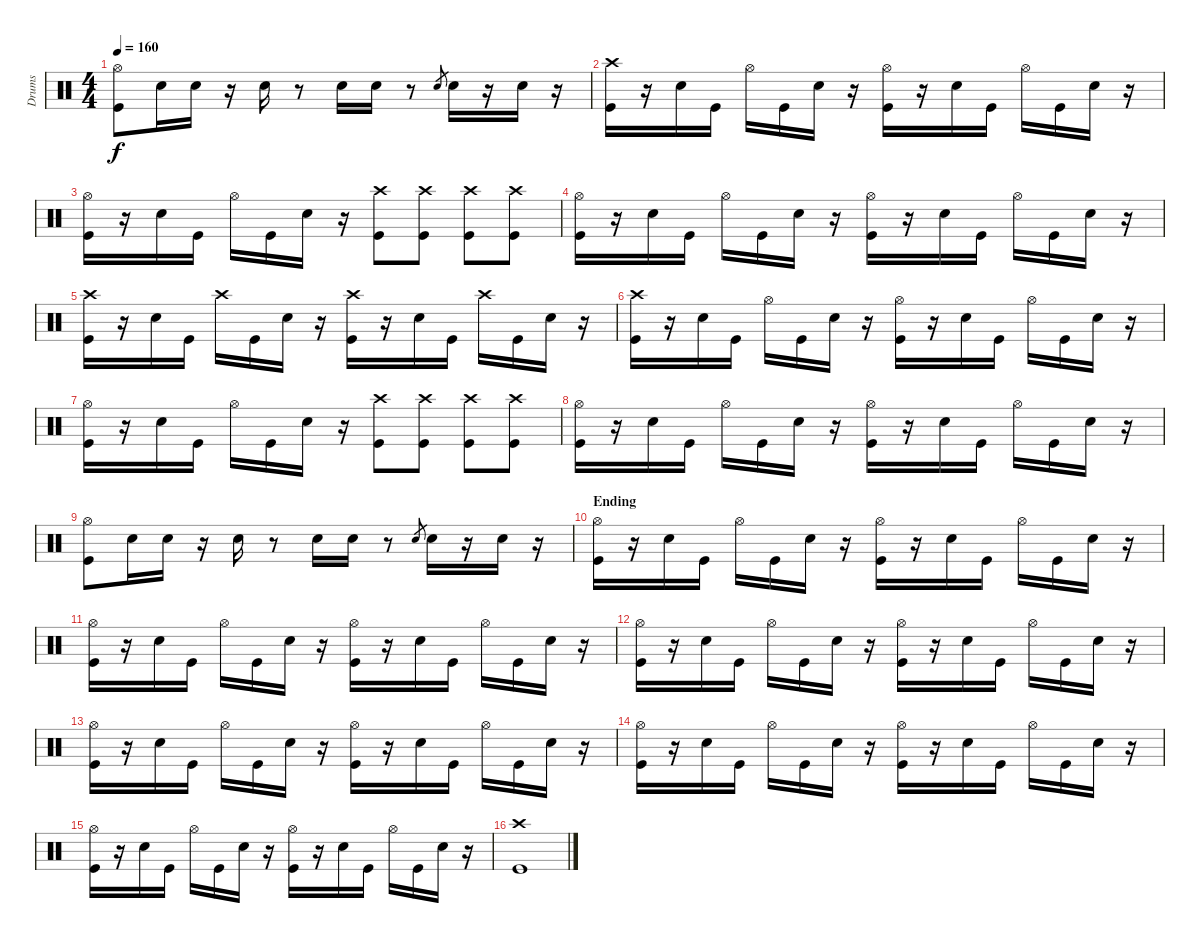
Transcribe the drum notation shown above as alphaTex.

\track ("Drums" "Drums") {instrument percussion}
\staff {score}
\articulation defaults
\ts (4 4)
\tempo 160
\clef neutral
\ks c
("Kick (hit)" "Hi-Hat (open)").8{dy f} "Snare (hit) 2".16 "Snare (hit) 2".16 r.16 "Snare (hit) 2".16 r.8 "Snare (hit) 2".16 "Snare (hit) 2".16 r.8 "Snare (hit) 2".8{gr} "Snare (hit) 2".16 r.16 "Snare (hit) 2".16 r.16 |
("Kick (hit)" "Crash high (hit)").16 r.16 "Snare (hit) 2".16 "Kick (hit)".16 "Hi-Hat (open)".16 "Kick (hit)".16 "Snare (hit) 2".16 r.16 ("Kick (hit)" "Hi-Hat (open)").16 r.16 "Snare (hit) 2".16 "Kick (hit)".16 "Hi-Hat (open)".16 "Kick (hit)".16 "Snare (hit) 2".16 r.16 |
("Kick (hit)" "Hi-Hat (open)").16 r.16 "Snare (hit) 2".16 "Kick (hit)".16 "Hi-Hat (open)".16 "Kick (hit)".16 "Snare (hit) 2".16 r.16 ("Kick (hit)" "Crash high (hit)").8 ("Kick (hit)" "Crash high (hit)").8 ("Kick (hit)" "Crash high (hit)").8 ("Kick (hit)" "Crash high (hit)").8 |
("Kick (hit)" "Hi-Hat (open)").16 r.16 "Snare (hit) 2".16 "Kick (hit)".16 "Hi-Hat (open)".16 "Kick (hit)".16 "Snare (hit) 2".16 r.16 ("Kick (hit)" "Hi-Hat (open)").16 r.16 "Snare (hit) 2".16 "Kick (hit)".16 "Hi-Hat (open)".16 "Kick (hit)".16 "Snare (hit) 2".16 r.16 |
("Kick (hit)" "Crash high (hit)").16 r.16 "Snare (hit) 2".16 "Kick (hit)".16 "Crash high (hit)".16 "Kick (hit)".16 "Snare (hit) 2".16 r.16 ("Kick (hit)" "Crash high (hit)").16 r.16 "Snare (hit) 2".16 "Kick (hit)".16 "Crash high (hit)".16 "Kick (hit)".16 "Snare (hit) 2".16 r.16 |
("Kick (hit)" "Crash high (hit)").16 r.16 "Snare (hit) 2".16 "Kick (hit)".16 "Hi-Hat (open)".16 "Kick (hit)".16 "Snare (hit) 2".16 r.16 ("Kick (hit)" "Hi-Hat (open)").16 r.16 "Snare (hit) 2".16 "Kick (hit)".16 "Hi-Hat (open)".16 "Kick (hit)".16 "Snare (hit) 2".16 r.16 |
("Kick (hit)" "Hi-Hat (open)").16 r.16 "Snare (hit) 2".16 "Kick (hit)".16 "Hi-Hat (open)".16 "Kick (hit)".16 "Snare (hit) 2".16 r.16 ("Kick (hit)" "Crash high (hit)").8 ("Kick (hit)" "Crash high (hit)").8 ("Kick (hit)" "Crash high (hit)").8 ("Kick (hit)" "Crash high (hit)").8 |
("Kick (hit)" "Hi-Hat (open)").16 r.16 "Snare (hit) 2".16 "Kick (hit)".16 "Hi-Hat (open)".16 "Kick (hit)".16 "Snare (hit) 2".16 r.16 ("Kick (hit)" "Hi-Hat (open)").16 r.16 "Snare (hit) 2".16 "Kick (hit)".16 "Hi-Hat (open)".16 "Kick (hit)".16 "Snare (hit) 2".16 r.16 |
("Kick (hit)" "Hi-Hat (open)").8 "Snare (hit) 2".16 "Snare (hit) 2".16 r.16 "Snare (hit) 2".16 r.8 "Snare (hit) 2".16 "Snare (hit) 2".16 r.8 "Snare (hit) 2".8{gr} "Snare (hit) 2".16 r.16 "Snare (hit) 2".16 r.16 |
\section ("" "Ending")
("Kick (hit)" "Hi-Hat (open)").16 r.16 "Snare (hit) 2".16 "Kick (hit)".16 "Hi-Hat (open)".16 "Kick (hit)".16 "Snare (hit) 2".16 r.16 ("Kick (hit)" "Hi-Hat (open)").16 r.16 "Snare (hit) 2".16 "Kick (hit)".16 "Hi-Hat (open)".16 "Kick (hit)".16 "Snare (hit) 2".16 r.16 |
("Kick (hit)" "Hi-Hat (open)").16 r.16 "Snare (hit) 2".16 "Kick (hit)".16 "Hi-Hat (open)".16 "Kick (hit)".16 "Snare (hit) 2".16 r.16 ("Kick (hit)" "Hi-Hat (open)").16 r.16 "Snare (hit) 2".16 "Kick (hit)".16 "Hi-Hat (open)".16 "Kick (hit)".16 "Snare (hit) 2".16 r.16 |
("Kick (hit)" "Hi-Hat (open)").16 r.16 "Snare (hit) 2".16 "Kick (hit)".16 "Hi-Hat (open)".16 "Kick (hit)".16 "Snare (hit) 2".16 r.16 ("Kick (hit)" "Hi-Hat (open)").16 r.16 "Snare (hit) 2".16 "Kick (hit)".16 "Hi-Hat (open)".16 "Kick (hit)".16 "Snare (hit) 2".16 r.16 |
("Kick (hit)" "Hi-Hat (open)").16 r.16 "Snare (hit) 2".16 "Kick (hit)".16 "Hi-Hat (open)".16 "Kick (hit)".16 "Snare (hit) 2".16 r.16 ("Kick (hit)" "Hi-Hat (open)").16 r.16 "Snare (hit) 2".16 "Kick (hit)".16 "Hi-Hat (open)".16 "Kick (hit)".16 "Snare (hit) 2".16 r.16 |
("Kick (hit)" "Hi-Hat (open)").16 r.16 "Snare (hit) 2".16 "Kick (hit)".16 "Hi-Hat (open)".16 "Kick (hit)".16 "Snare (hit) 2".16 r.16 ("Kick (hit)" "Hi-Hat (open)").16 r.16 "Snare (hit) 2".16 "Kick (hit)".16 "Hi-Hat (open)".16 "Kick (hit)".16 "Snare (hit) 2".16 r.16 |
("Kick (hit)" "Hi-Hat (open)").16 r.16 "Snare (hit) 2".16 "Kick (hit)".16 "Hi-Hat (open)".16 "Kick (hit)".16 "Snare (hit) 2".16 r.16 ("Kick (hit)" "Hi-Hat (open)").16 r.16 "Snare (hit) 2".16 "Kick (hit)".16 "Hi-Hat (open)".16 "Kick (hit)".16 "Snare (hit) 2".16 r.16 |
("Kick (hit)" "Crash high (hit)").1
